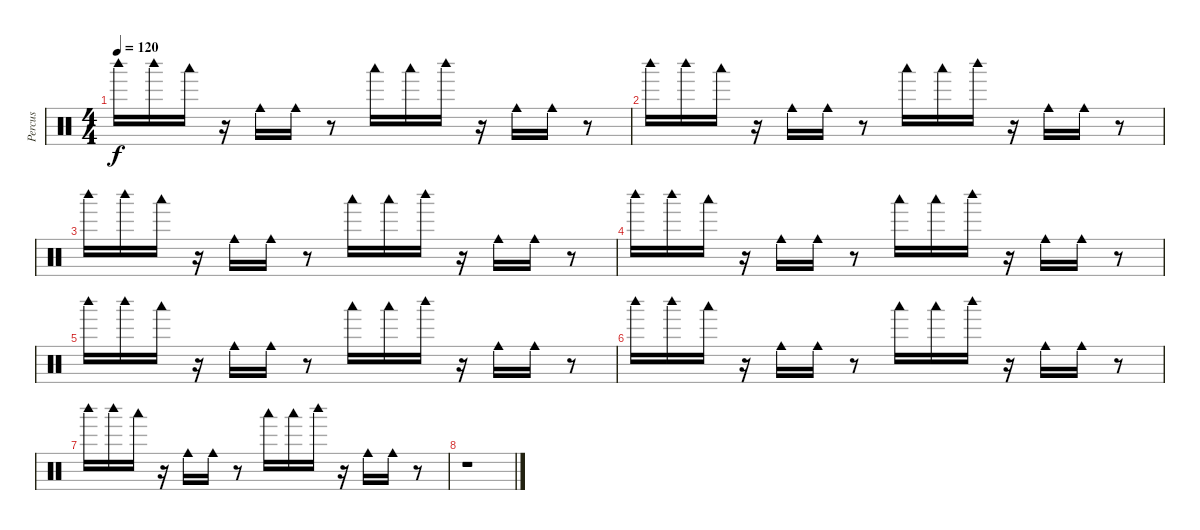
\track ("Percus" "Percus") {instrument percussion}
\staff {score}
\articulation defaults
\ts (4 4)
\tempo 120
\clef neutral
\ks c "Woodblock high (hit)".16{dy f} "Woodblock high (hit)".16 "Woodblock low (hit)".16
r.16 "Cowbell medium (hit)".16 "Cowbell medium (hit)".16 r.8 "Woodblock low (hit)".16 "Woodblock low (hit)".16 "Woodblock high (hit)".16 r.16 "Cowbell medium (hit)".16 "Cowbell medium (hit)".16 r.8 |
"Woodblock high (hit)".16 "Woodblock high (hit)".16 "Woodblock low (hit)".16 r.16 "Cowbell medium (hit)".16 "Cowbell medium (hit)".16 r.8 "Woodblock low (hit)".16 "Woodblock low (hit)".16 "Woodblock high (hit)".16 r.16 "Cowbell medium (hit)".16 "Cowbell medium (hit)".16 r.8 |
"Woodblock high (hit)".16 "Woodblock high (hit)".16 "Woodblock low (hit)".16 r.16 "Cowbell medium (hit)".16 "Cowbell medium (hit)".16 r.8 "Woodblock low (hit)".16 "Woodblock low (hit)".16 "Woodblock high (hit)".16 r.16 "Cowbell medium (hit)".16 "Cowbell medium (hit)".16 r.8 |
"Woodblock high (hit)".16 "Woodblock high (hit)".16 "Woodblock low (hit)".16 r.16 "Cowbell medium (hit)".16 "Cowbell medium (hit)".16 r.8 "Woodblock low (hit)".16 "Woodblock low (hit)".16 "Woodblock high (hit)".16 r.16 "Cowbell medium (hit)".16 "Cowbell medium (hit)".16 r.8 |
"Woodblock high (hit)".16 "Woodblock high (hit)".16 "Woodblock low (hit)".16 r.16 "Cowbell medium (hit)".16 "Cowbell medium (hit)".16 r.8 "Woodblock low (hit)".16 "Woodblock low (hit)".16 "Woodblock high (hit)".16 r.16 "Cowbell medium (hit)".16 "Cowbell medium (hit)".16 r.8 |
"Woodblock high (hit)".16 "Woodblock high (hit)".16 "Woodblock low (hit)".16 r.16 "Cowbell medium (hit)".16 "Cowbell medium (hit)".16 r.8 "Woodblock low (hit)".16 "Woodblock low (hit)".16 "Woodblock high (hit)".16 r.16 "Cowbell medium (hit)".16 "Cowbell medium (hit)".16 r.8 |
"Woodblock high (hit)".16 "Woodblock high (hit)".16 "Woodblock low (hit)".16 r.16 "Cowbell medium (hit)".16 "Cowbell medium (hit)".16 r.8 "Woodblock low (hit)".16 "Woodblock low (hit)".16 "Woodblock high (hit)".16 r.16 "Cowbell medium (hit)".16 "Cowbell medium (hit)".16 r.8 |
r.1
